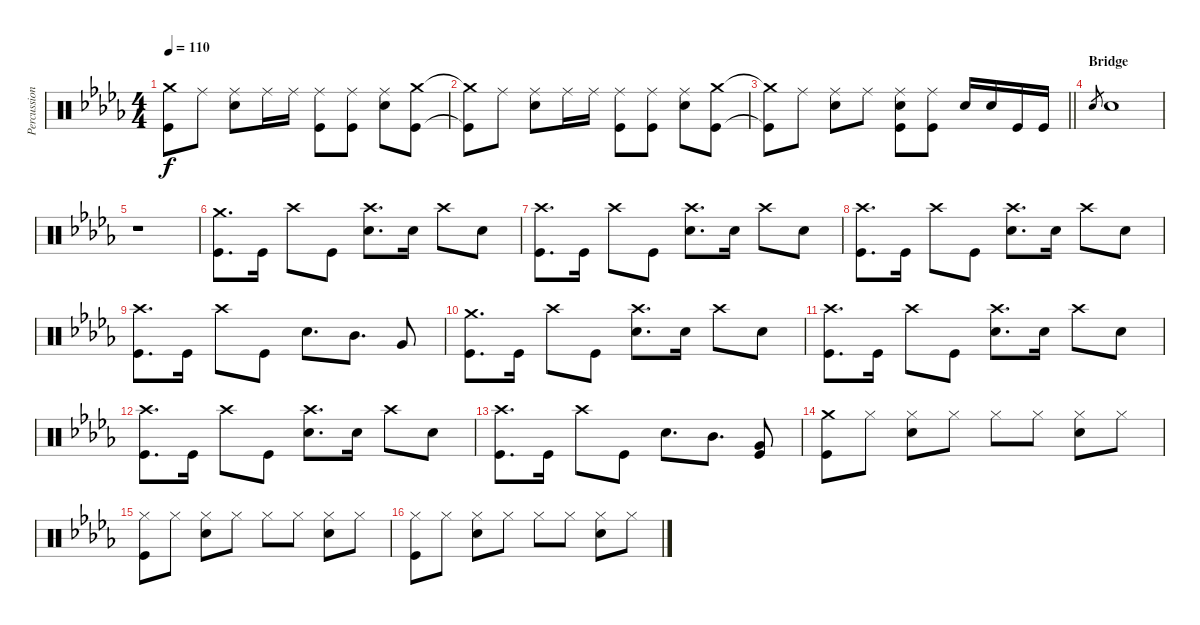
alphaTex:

\track ("Percussion" "Percussion") {instrument percussion}
\staff {score}
\articulation defaults
\ts (4 4)
\tempo 110
\clef neutral
\ks db
("Crash medium (hit)"{t} "Kick (hit)"{t}).8{dy f} "Ride (middle)".8 ("Ride (middle)" "Electric Snare (hit)").8 "Ride (middle)".16 "Ride (middle)".16 ("Ride (middle)" "Kick (hit)").8 ("Ride (middle)" "Kick (hit)").8 ("Ride (middle)" "Electric Snare (hit)").8 ("Crash medium (hit)" "Kick (hit)").8 |
("Crash medium (hit)"{t} "Kick (hit)"{t}).8 "Ride (middle)".8 ("Ride (middle)" "Electric Snare (hit)").8 "Ride (middle)".16 "Ride (middle)".16 ("Ride (middle)" "Kick (hit)").8 ("Ride (middle)" "Kick (hit)").8 ("Ride (middle)" "Electric Snare (hit)").8 ("Crash medium (hit)" "Kick (hit)").8 |
\barLineRight lightlight
("Crash medium (hit)"{t} "Kick (hit)"{t}).8 "Ride (middle)".8 ("Ride (middle)" "Electric Snare (hit)").8 "Ride (middle)".8 ("Ride (middle)" "Electric Snare (hit)" "Kick (hit)").8 ("Ride (middle)" "Kick (hit)").8 "Electric Snare (hit)".16 "Electric Snare (hit)".16 "Kick (hit)".16 "Kick (hit)".16 |
\section ("" "Bridge")
"Electric Snare (hit)".8{gr} "Electric Snare (hit)".1 |
r.1 |
("Crash medium (hit)" "Kick (hit)").8{d} "Kick (hit)".16 "Crash high (hit)".8 "Kick (hit)".8 ("Crash high (hit)" "Electric Snare (hit)").8{d} "Electric Snare (hit)".16 "Crash high (hit)".8 "Electric Snare (hit)".8 |
("Crash high (hit)" "Kick (hit)").8{d} "Kick (hit)".16 "Crash high (hit)".8 "Kick (hit)".8 ("Crash high (hit)" "Electric Snare (hit)").8{d} "Electric Snare (hit)".16 "Crash high (hit)".8 "Electric Snare (hit)".8 |
("Crash high (hit)" "Kick (hit)").8{d} "Kick (hit)".16 "Crash high (hit)".8 "Kick (hit)".8 ("Crash high (hit)" "Electric Snare (hit)").8{d} "Electric Snare (hit)".16 "Crash high (hit)".8 "Electric Snare (hit)".8 |
("Crash high (hit)" "Kick (hit)").8{d} "Kick (hit)".16 "Crash high (hit)".8 "Kick (hit)".8 "Electric Snare (hit)".8{d} "Mid Tom (hit)".8{d} "Very Low Tom (hit)".8 |
("Crash medium (hit)" "Kick (hit)").8{d} "Kick (hit)".16 "Crash high (hit)".8 "Kick (hit)".8 ("Crash high (hit)" "Electric Snare (hit)").8{d} "Electric Snare (hit)".16 "Crash high (hit)".8 "Electric Snare (hit)".8 |
("Crash high (hit)" "Kick (hit)").8{d} "Kick (hit)".16 "Crash high (hit)".8 "Kick (hit)".8 ("Crash high (hit)" "Electric Snare (hit)").8{d} "Electric Snare (hit)".16 "Crash high (hit)".8 "Electric Snare (hit)".8 |
("Crash high (hit)" "Kick (hit)").8{d} "Kick (hit)".16 "Crash high (hit)".8 "Kick (hit)".8 ("Crash high (hit)" "Electric Snare (hit)").8{d} "Electric Snare (hit)".16 "Crash high (hit)".8 "Electric Snare (hit)".8 |
("Crash high (hit)" "Kick (hit)").8{d} "Kick (hit)".16 "Crash high (hit)".8 "Kick (hit)".8 "Electric Snare (hit)".8{d} "Mid Tom (hit)".8{d} ("Very Low Tom (hit)" "Kick (hit)").8 |
("Crash medium (hit)" "Kick (hit)").8 "Hi-Hat (closed)".8 ("Hi-Hat (closed)" "Electric Snare (hit)").8 "Hi-Hat (closed)".8 "Hi-Hat (closed)".8 "Hi-Hat (closed)".8 ("Hi-Hat (closed)" "Electric Snare (hit)").8 "Hi-Hat (closed)".8 |
("Hi-Hat (closed)" "Kick (hit)").8 "Hi-Hat (closed)".8 ("Hi-Hat (closed)" "Electric Snare (hit)").8 "Hi-Hat (closed)".8 "Hi-Hat (closed)".8 "Hi-Hat (closed)".8 ("Hi-Hat (closed)" "Electric Snare (hit)").8 "Hi-Hat (closed)".8 |
("Hi-Hat (closed)" "Kick (hit)").8 "Hi-Hat (closed)".8 ("Hi-Hat (closed)" "Electric Snare (hit)").8 "Hi-Hat (closed)".8 "Hi-Hat (closed)".8 "Hi-Hat (closed)".8 ("Hi-Hat (closed)" "Electric Snare (hit)").8 "Hi-Hat (closed)".8
